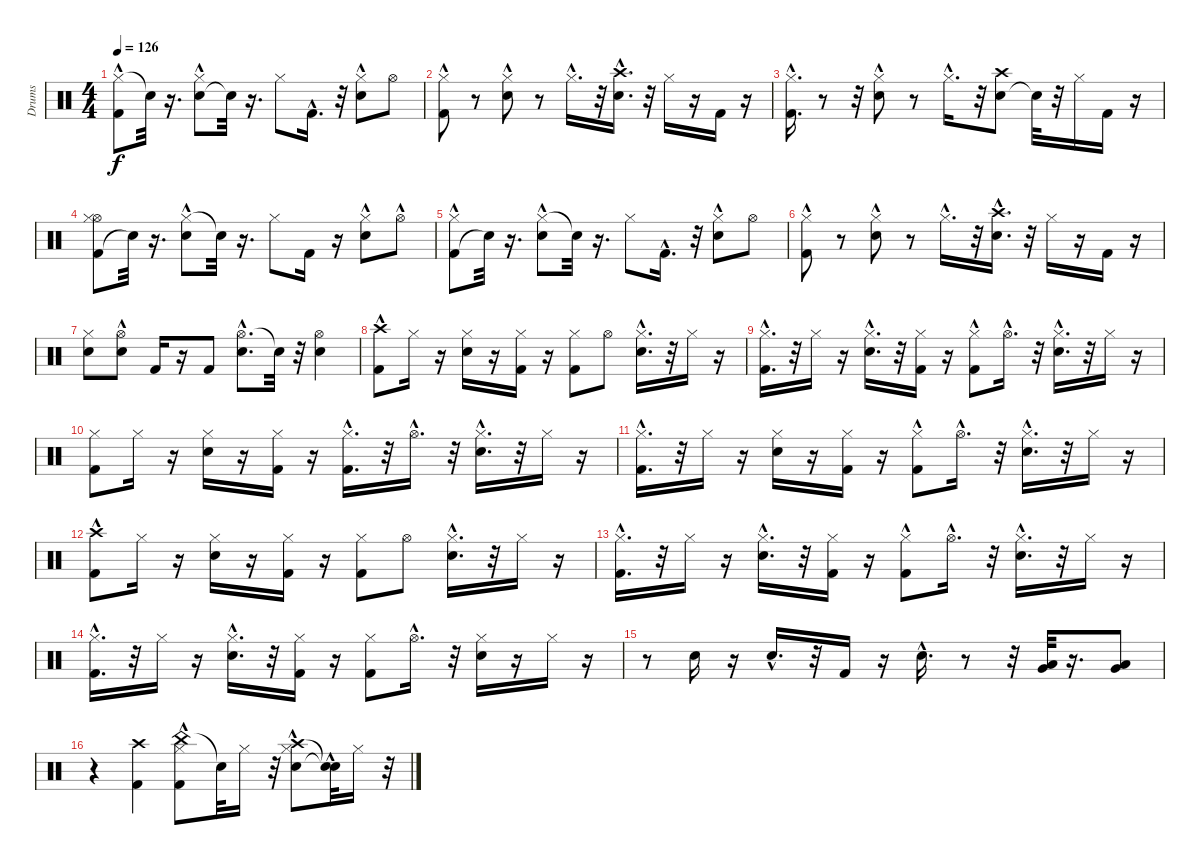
\track ("Drums" "Drums") {instrument percussion}
\staff {score}
\articulation defaults
\ts (4 4)
\tempo 126
\clef neutral
\ks c
("Hi-Hat (closed)" "Kick (hit) 2"{hac}).8{dy f} "Snare (hit)"{t}.32 r.16{d} ("Electric Snare (hit)"{hac} "Hi-Hat (closed)").8 "Snare (hit)"{t}.32 r.16{d} "Hi-Hat (closed)".8 "Kick (hit) 2"{hac}.16{d} r.32 ("Electric Snare (hit)"{hac} "Hi-Hat (closed)").8 "Hi-Hat (open)".8 |
("Kick (hit) 2"{hac} "Hi-Hat (closed)").8 r.8 ("Electric Snare (hit)"{hac} "Hi-Hat (closed)").8 r.8 "Hi-Hat (closed)"{hac}.16{d} r.32 ("Electric Snare (hit)"{hac} "Crash high (hit)"{hac}).16{d} r.32 "Hi-Hat (closed)".16 r.16 "Kick (hit) 2".16 r.16 |
("Kick (hit) 2"{hac} "Hi-Hat (closed)"{hac}).16{d} r.8 r.32 ("Electric Snare (hit)" "Hi-Hat (closed)"{hac}).8 r.8 "Hi-Hat (closed)"{hac}.16{d} r.32 ("Electric Snare (hit)" "Crash high (hit)").8 "Snare (hit)"{t}.32 r.32 "Hi-Hat (closed)".16 "Kick (hit) 2".16 r.16 |
("Kick (hit) 2" "Hi-Hat (open)" "Hi-Hat (closed)").8 "Snare (hit)"{t}.32 r.16{d} ("Hi-Hat (closed)" "Electric Snare (hit)"{hac}).8 "Snare (hit)"{t}.32 r.16{d} "Hi-Hat (closed)".8 "Kick (hit) 2".16 r.16 ("Electric Snare (hit)"{hac} "Hi-Hat (closed)").8 "Hi-Hat (open)"{hac}.8 |
("Kick (hit) 2"{hac} "Hi-Hat (closed)").8 "Snare (hit)"{t}.32 r.16{d} ("Hi-Hat (closed)" "Electric Snare (hit)"{hac}).8 "Snare (hit)"{t}.32 r.16{d} "Hi-Hat (closed)".8 "Kick (hit) 2"{hac}.16{d} r.32 ("Electric Snare (hit)"{hac} "Hi-Hat (closed)").8 "Hi-Hat (open)".8 |
("Kick (hit) 2"{hac} "Hi-Hat (closed)").8 r.8 ("Electric Snare (hit)"{hac} "Hi-Hat (closed)").8 r.8 "Hi-Hat (closed)"{hac}.16{d} r.32 ("Crash high (hit)"{hac} "Electric Snare (hit)"{hac}).16{d} r.32 "Hi-Hat (closed)".16 r.16 "Kick (hit) 2".16 r.16 |
("Electric Snare (hit)" "Hi-Hat (closed)").8 ("Hi-Hat (open)" "Electric Snare (hit)"{hac}).8 "Kick (hit) 2".16 r.16 "Kick (hit) 2".8 ("Hi-Hat (open)"{hac} "Electric Snare (hit)").8{d} "Snare (hit)"{t}.32 r.32 ("Hi-Hat (open)" "Electric Snare (hit)").4 |
("Crash high (hit)"{hac} "Kick (hit) 2").8 "Hi-Hat (closed)".16 r.16 ("Electric Snare (hit)" "Hi-Hat (closed)").16 r.16 ("Hi-Hat (closed)" "Kick (hit) 2").16 r.16 ("Kick (hit) 2" "Hi-Hat (closed)").8 "Hi-Hat (open)".8 ("Hi-Hat (closed)" "Electric Snare (hit)"{hac}).16{d} r.32 "Hi-Hat (closed)".16 r.16 |
("Kick (hit) 2"{hac} "Hi-Hat (closed)").16{d} r.32 "Hi-Hat (closed)".16 r.16 ("Hi-Hat (closed)" "Electric Snare (hit)"{hac}).16{d} r.32 ("Hi-Hat (closed)" "Kick (hit) 2").16 r.16 ("Kick (hit) 2" "Hi-Hat (closed)"{hac}).8 "Hi-Hat (open)"{hac}.16{d} r.32 ("Electric Snare (hit)" "Hi-Hat (closed)"{hac}).16{d} r.32 "Hi-Hat (closed)".16 r.16 |
("Hi-Hat (closed)" "Kick (hit) 2").8 "Hi-Hat (closed)".16 r.16 ("Hi-Hat (closed)" "Electric Snare (hit)").16 r.16 ("Kick (hit) 2" "Hi-Hat (closed)").16 r.16 ("Hi-Hat (closed)" "Kick (hit) 2"{hac}).16{d} r.32 "Hi-Hat (open)"{hac}.16{d} r.32 ("Electric Snare (hit)"{hac} "Hi-Hat (closed)").16{d} r.32 "Hi-Hat (closed)".16 r.16 |
("Hi-Hat (closed)" "Kick (hit) 2"{hac}).16{d} r.32 "Hi-Hat (closed)".16 r.16 ("Hi-Hat (closed)" "Electric Snare (hit)").16 r.16 ("Kick (hit) 2" "Hi-Hat (closed)").16 r.16 ("Kick (hit) 2" "Hi-Hat (closed)"{hac}).8 "Hi-Hat (open)"{hac}.16{d} r.32 ("Electric Snare (hit)"{hac} "Hi-Hat (closed)"{hac}).16{d} r.32 "Hi-Hat (closed)".16 r.16 |
("Kick (hit) 2" "Crash high (hit)"{hac}).8 "Hi-Hat (closed)".16 r.16 ("Hi-Hat (closed)" "Electric Snare (hit)").16 r.16 ("Kick (hit) 2" "Hi-Hat (closed)").16 r.16 ("Kick (hit) 2" "Hi-Hat (closed)").8 "Hi-Hat (open)".8 ("Hi-Hat (closed)" "Electric Snare (hit)"{hac}).16{d} r.32 "Hi-Hat (closed)".16 r.16 |
("Hi-Hat (closed)" "Kick (hit) 2"{hac}).16{d} r.32 "Hi-Hat (closed)".16 r.16 ("Hi-Hat (closed)" "Electric Snare (hit)"{hac}).16{d} r.32 ("Kick (hit) 2" "Hi-Hat (closed)").16 r.16 ("Hi-Hat (closed)"{hac} "Kick (hit) 2").8 "Hi-Hat (open)"{hac}.16{d} r.32 ("Hi-Hat (closed)"{hac} "Electric Snare (hit)").16{d} r.32 "Hi-Hat (closed)".16 r.16 |
("Hi-Hat (closed)" "Kick (hit) 2"{hac}).16{d} r.32 "Hi-Hat (closed)".16 r.16 ("Hi-Hat (closed)" "Electric Snare (hit)"{hac}).16{d} r.32 ("Hi-Hat (closed)" "Kick (hit) 2").16 r.16 ("Hi-Hat (closed)" "Kick (hit) 2").8 "Hi-Hat (open)"{hac}.16{d} r.32 ("Electric Snare (hit)" "Hi-Hat (closed)").16 r.16 "Hi-Hat (closed)".16 r.16 |
r.8 "Electric Snare (hit)".16 r.16 "Electric Snare (hit)"{hac}.16{d} r.32 "Kick (hit) 2".16 r.16 "Electric Snare (hit)"{hac}.16{d} r.8 r.32 ("Low Tom (hit)" "Very Low Tom (hit)").32 r.16{d} ("Very Low Tom (hit)" "Low Floor Tom (hit)").8 |
r.4 ("Crash high (hit)" "Kick (hit) 2").4 ("China (hit)"{hac} "Kick (hit) 2" "Hi-Hat (closed)"{hac}).8 "Snare (hit)"{t}.32 "Hi-Hat (closed)".16 r.32 ("Crash high (hit)" "Electric Snare (hit)" "Hi-Hat (closed)"{hac}).8 ("Snare (hit)"{hac t} "Snare (hit)"{hac t}).32 "Hi-Hat (closed)".16 r.32
